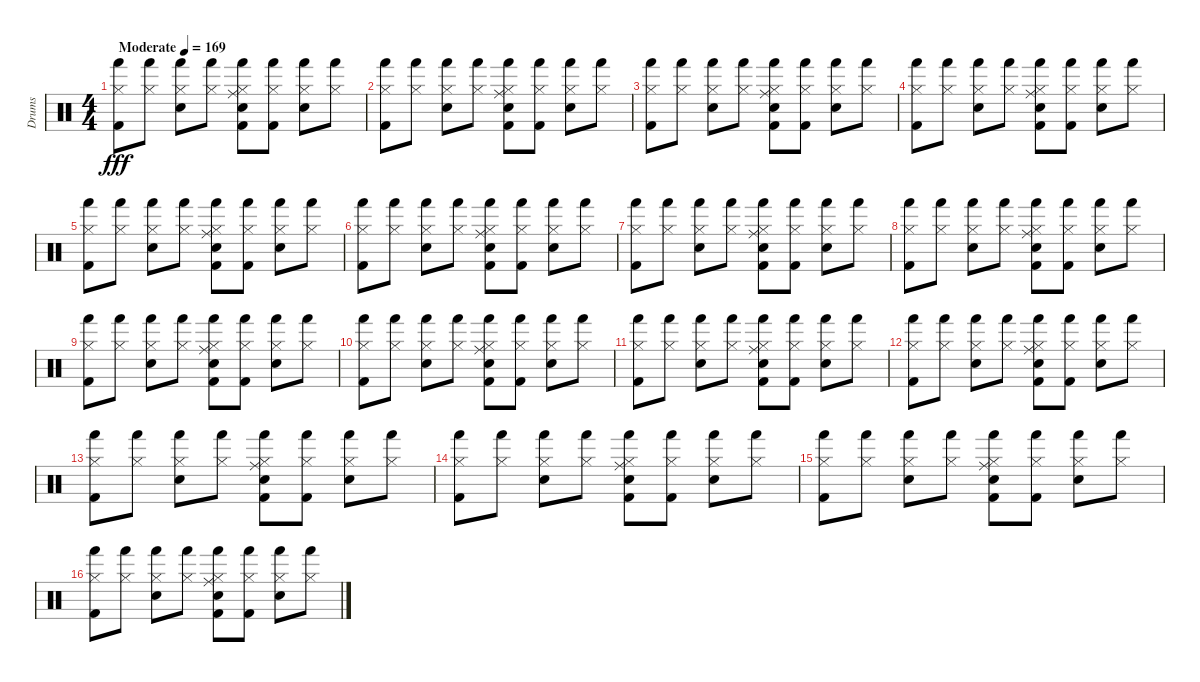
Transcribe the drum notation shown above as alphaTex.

\track ("Drums" "Drums") {instrument percussion}
\staff {score}
\articulation defaults
\ts (4 4)
\tempo (169 "Moderate")
\clef neutral
\ks c
("Kick (hit) 2" "Hand (hit)" "Hi-Hat (closed)").8{dy fff} ("Hand (hit)" "Hi-Hat (closed)").8 ("Snare (hit) 2" "Hand (hit)" "Hi-Hat (closed)").8 ("Hand (hit)" "Hi-Hat (closed)").8 ("Kick (hit) 2" "Hand (hit)" "Ride (middle)" "Electric Snare (hit)" "Hi-Hat (closed)").8 ("Kick (hit) 2" "Hand (hit)" "Hi-Hat (closed)").8 ("Snare (hit) 2" "Hand (hit)" "Hi-Hat (closed)").8 ("Hand (hit)" "Hi-Hat (closed)").8 |
("Kick (hit) 2" "Hand (hit)" "Hi-Hat (closed)").8 ("Hand (hit)" "Hi-Hat (closed)").8 ("Snare (hit) 2" "Hand (hit)" "Hi-Hat (closed)").8 ("Hand (hit)" "Hi-Hat (closed)").8 ("Kick (hit) 2" "Hand (hit)" "Ride (middle)" "Electric Snare (hit)" "Hi-Hat (closed)").8 ("Kick (hit) 2" "Hand (hit)" "Hi-Hat (closed)").8 ("Snare (hit) 2" "Hand (hit)" "Hi-Hat (closed)").8 ("Hand (hit)" "Hi-Hat (closed)").8 |
("Kick (hit) 2" "Hand (hit)" "Hi-Hat (closed)").8 ("Hand (hit)" "Hi-Hat (closed)").8 ("Snare (hit) 2" "Hand (hit)" "Hi-Hat (closed)").8 ("Hand (hit)" "Hi-Hat (closed)").8 ("Kick (hit) 2" "Hand (hit)" "Ride (middle)" "Electric Snare (hit)" "Hi-Hat (closed)").8 ("Kick (hit) 2" "Hand (hit)" "Hi-Hat (closed)").8 ("Snare (hit) 2" "Hand (hit)" "Hi-Hat (closed)").8 ("Hand (hit)" "Hi-Hat (closed)").8 |
("Kick (hit) 2" "Hand (hit)" "Hi-Hat (closed)").8 ("Hand (hit)" "Hi-Hat (closed)").8 ("Snare (hit) 2" "Hand (hit)" "Hi-Hat (closed)").8 ("Hand (hit)" "Hi-Hat (closed)").8 ("Kick (hit) 2" "Hand (hit)" "Ride (middle)" "Electric Snare (hit)" "Hi-Hat (closed)").8 ("Kick (hit) 2" "Hand (hit)" "Hi-Hat (closed)").8 ("Snare (hit) 2" "Hand (hit)" "Hi-Hat (closed)").8 ("Hand (hit)" "Hi-Hat (closed)").8 |
("Kick (hit) 2" "Hand (hit)" "Hi-Hat (closed)").8 ("Hand (hit)" "Hi-Hat (closed)").8 ("Snare (hit) 2" "Hand (hit)" "Hi-Hat (closed)").8 ("Hand (hit)" "Hi-Hat (closed)").8 ("Kick (hit) 2" "Hand (hit)" "Ride (middle)" "Electric Snare (hit)" "Hi-Hat (closed)").8 ("Kick (hit) 2" "Hand (hit)" "Hi-Hat (closed)").8 ("Snare (hit) 2" "Hand (hit)" "Hi-Hat (closed)").8 ("Hand (hit)" "Hi-Hat (closed)").8 |
("Kick (hit) 2" "Hand (hit)" "Hi-Hat (closed)").8 ("Hand (hit)" "Hi-Hat (closed)").8 ("Snare (hit) 2" "Hand (hit)" "Hi-Hat (closed)").8 ("Hand (hit)" "Hi-Hat (closed)").8 ("Kick (hit) 2" "Hand (hit)" "Ride (middle)" "Electric Snare (hit)" "Hi-Hat (closed)").8 ("Kick (hit) 2" "Hand (hit)" "Hi-Hat (closed)").8 ("Snare (hit) 2" "Hand (hit)" "Hi-Hat (closed)").8 ("Hand (hit)" "Hi-Hat (closed)").8 |
("Kick (hit) 2" "Hand (hit)" "Hi-Hat (closed)").8 ("Hand (hit)" "Hi-Hat (closed)").8 ("Snare (hit) 2" "Hand (hit)" "Hi-Hat (closed)").8 ("Hand (hit)" "Hi-Hat (closed)").8 ("Kick (hit) 2" "Hand (hit)" "Electric Snare (hit)" "Ride (middle)" "Hi-Hat (closed)").8 ("Kick (hit) 2" "Hand (hit)" "Hi-Hat (closed)").8 ("Snare (hit) 2" "Hand (hit)" "Hi-Hat (closed)").8 ("Hand (hit)" "Hi-Hat (closed)").8 |
("Kick (hit) 2" "Hand (hit)" "Hi-Hat (closed)").8 ("Hand (hit)" "Hi-Hat (closed)").8 ("Snare (hit) 2" "Hand (hit)" "Hi-Hat (closed)").8 ("Hand (hit)" "Hi-Hat (closed)").8 ("Kick (hit) 2" "Hand (hit)" "Ride (middle)" "Electric Snare (hit)" "Hi-Hat (closed)").8 ("Kick (hit) 2" "Hand (hit)" "Hi-Hat (closed)").8 ("Snare (hit) 2" "Hand (hit)" "Hi-Hat (closed)").8 ("Hand (hit)" "Hi-Hat (closed)").8 |
("Kick (hit) 2" "Hand (hit)" "Hi-Hat (closed)").8 ("Hand (hit)" "Hi-Hat (closed)").8 ("Snare (hit) 2" "Hand (hit)" "Hi-Hat (closed)").8 ("Hand (hit)" "Hi-Hat (closed)").8 ("Kick (hit) 2" "Hand (hit)" "Electric Snare (hit)" "Ride (middle)" "Hi-Hat (closed)").8 ("Kick (hit) 2" "Hand (hit)" "Hi-Hat (closed)").8 ("Snare (hit) 2" "Hand (hit)" "Hi-Hat (closed)").8 ("Hand (hit)" "Hi-Hat (closed)").8 |
("Kick (hit) 2" "Hand (hit)" "Hi-Hat (closed)").8 ("Hand (hit)" "Hi-Hat (closed)").8 ("Snare (hit) 2" "Hand (hit)" "Hi-Hat (closed)").8 ("Hand (hit)" "Hi-Hat (closed)").8 ("Kick (hit) 2" "Hand (hit)" "Ride (middle)" "Electric Snare (hit)" "Hi-Hat (closed)").8 ("Kick (hit) 2" "Hand (hit)" "Hi-Hat (closed)").8 ("Snare (hit) 2" "Hand (hit)" "Hi-Hat (closed)").8 ("Hand (hit)" "Hi-Hat (closed)").8 |
("Kick (hit) 2" "Hand (hit)" "Hi-Hat (closed)").8 ("Hand (hit)" "Hi-Hat (closed)").8 ("Snare (hit) 2" "Hand (hit)" "Hi-Hat (closed)").8 ("Hand (hit)" "Hi-Hat (closed)").8 ("Kick (hit) 2" "Hand (hit)" "Electric Snare (hit)" "Ride (middle)" "Hi-Hat (closed)").8 ("Kick (hit) 2" "Hand (hit)" "Hi-Hat (closed)").8 ("Snare (hit) 2" "Hand (hit)" "Hi-Hat (closed)").8 ("Hand (hit)" "Hi-Hat (closed)").8 |
("Kick (hit) 2" "Hand (hit)" "Hi-Hat (closed)").8 ("Hand (hit)" "Hi-Hat (closed)").8 ("Snare (hit) 2" "Hand (hit)" "Hi-Hat (closed)").8 ("Hand (hit)" "Hi-Hat (closed)").8 ("Kick (hit) 2" "Hand (hit)" "Ride (middle)" "Electric Snare (hit)" "Hi-Hat (closed)").8 ("Kick (hit) 2" "Hand (hit)" "Hi-Hat (closed)").8 ("Snare (hit) 2" "Hand (hit)" "Hi-Hat (closed)").8 ("Hand (hit)" "Hi-Hat (closed)").8 |
("Kick (hit) 2" "Hand (hit)" "Hi-Hat (closed)").8 ("Hand (hit)" "Hi-Hat (closed)").8 ("Snare (hit) 2" "Hand (hit)" "Hi-Hat (closed)").8 ("Hand (hit)" "Hi-Hat (closed)").8 ("Kick (hit) 2" "Hand (hit)" "Electric Snare (hit)" "Ride (middle)" "Hi-Hat (closed)").8 ("Kick (hit) 2" "Hand (hit)" "Hi-Hat (closed)").8 ("Snare (hit) 2" "Hand (hit)" "Hi-Hat (closed)").8 ("Hand (hit)" "Hi-Hat (closed)").8 |
("Kick (hit) 2" "Hand (hit)" "Hi-Hat (closed)").8 ("Hand (hit)" "Hi-Hat (closed)").8 ("Snare (hit) 2" "Hand (hit)" "Hi-Hat (closed)").8 ("Hand (hit)" "Hi-Hat (closed)").8 ("Kick (hit) 2" "Hand (hit)" "Ride (middle)" "Electric Snare (hit)" "Hi-Hat (closed)").8 ("Kick (hit) 2" "Hand (hit)" "Hi-Hat (closed)").8 ("Snare (hit) 2" "Hand (hit)" "Hi-Hat (closed)").8 ("Hand (hit)" "Hi-Hat (closed)").8 |
("Kick (hit) 2" "Hand (hit)" "Hi-Hat (closed)").8 ("Hand (hit)" "Hi-Hat (closed)").8 ("Snare (hit) 2" "Hand (hit)" "Hi-Hat (closed)").8 ("Hand (hit)" "Hi-Hat (closed)").8 ("Kick (hit) 2" "Hand (hit)" "Electric Snare (hit)" "Ride (middle)" "Hi-Hat (closed)").8 ("Kick (hit) 2" "Hand (hit)" "Hi-Hat (closed)").8 ("Snare (hit) 2" "Hand (hit)" "Hi-Hat (closed)").8 ("Hand (hit)" "Hi-Hat (closed)").8 |
("Kick (hit) 2" "Hand (hit)" "Hi-Hat (closed)").8 ("Hand (hit)" "Hi-Hat (closed)").8 ("Snare (hit) 2" "Hand (hit)" "Hi-Hat (closed)").8 ("Hand (hit)" "Hi-Hat (closed)").8 ("Kick (hit) 2" "Hand (hit)" "Ride (middle)" "Electric Snare (hit)" "Hi-Hat (closed)").8 ("Kick (hit) 2" "Hand (hit)" "Hi-Hat (closed)").8 ("Snare (hit) 2" "Hand (hit)" "Hi-Hat (closed)").8 ("Hand (hit)" "Hi-Hat (closed)").8
